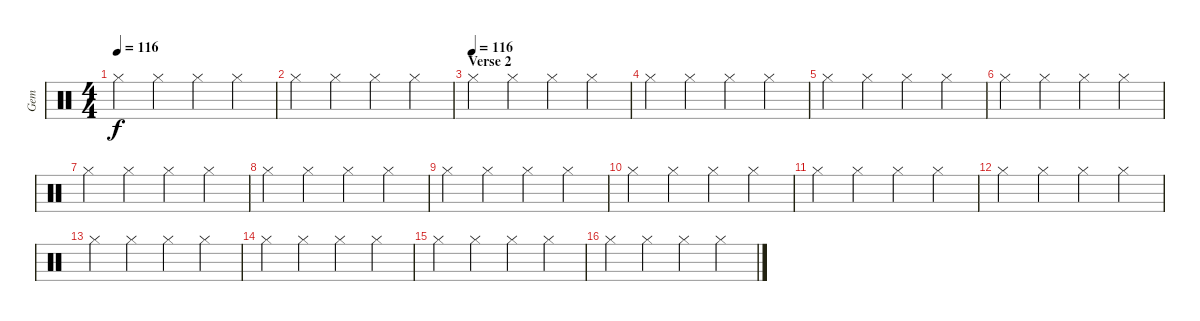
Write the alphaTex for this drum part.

\track ("Gem" "Gem") {instrument percussion}
\staff {score}
\articulation defaults
\ts (4 4)
\tempo 116
\clef neutral
\ks c "Hi-Hat (closed)".4{dy f} "Hi-Hat (closed)".4 "Hi-Hat (closed)".4 "Hi-Hat (closed)".4
|
"Hi-Hat (closed)".4 "Hi-Hat (closed)".4 "Hi-Hat (closed)".4 "Hi-Hat (closed)".4 |
\section ("" "Verse 2")
\tempo (116)
"Hi-Hat (closed)".4 "Hi-Hat (closed)".4 "Hi-Hat (closed)".4 "Hi-Hat (closed)".4 |
"Hi-Hat (closed)".4 "Hi-Hat (closed)".4 "Hi-Hat (closed)".4 "Hi-Hat (closed)".4 |
"Hi-Hat (closed)".4 "Hi-Hat (closed)".4 "Hi-Hat (closed)".4 "Hi-Hat (closed)".4 |
"Hi-Hat (closed)".4 "Hi-Hat (closed)".4 "Hi-Hat (closed)".4 "Hi-Hat (closed)".4 |
"Hi-Hat (closed)".4 "Hi-Hat (closed)".4 "Hi-Hat (closed)".4 "Hi-Hat (closed)".4 |
"Hi-Hat (closed)".4 "Hi-Hat (closed)".4 "Hi-Hat (closed)".4 "Hi-Hat (closed)".4 |
"Hi-Hat (closed)".4 "Hi-Hat (closed)".4 "Hi-Hat (closed)".4 "Hi-Hat (closed)".4 |
"Hi-Hat (closed)".4 "Hi-Hat (closed)".4 "Hi-Hat (closed)".4 "Hi-Hat (closed)".4 |
"Hi-Hat (closed)".4 "Hi-Hat (closed)".4 "Hi-Hat (closed)".4 "Hi-Hat (closed)".4 |
"Hi-Hat (closed)".4 "Hi-Hat (closed)".4 "Hi-Hat (closed)".4 "Hi-Hat (closed)".4 |
"Hi-Hat (closed)".4 "Hi-Hat (closed)".4 "Hi-Hat (closed)".4 "Hi-Hat (closed)".4 |
"Hi-Hat (closed)".4 "Hi-Hat (closed)".4 "Hi-Hat (closed)".4 "Hi-Hat (closed)".4 |
"Hi-Hat (closed)".4 "Hi-Hat (closed)".4 "Hi-Hat (closed)".4 "Hi-Hat (closed)".4 |
"Hi-Hat (closed)".4 "Hi-Hat (closed)".4 "Hi-Hat (closed)".4 "Hi-Hat (closed)".4
